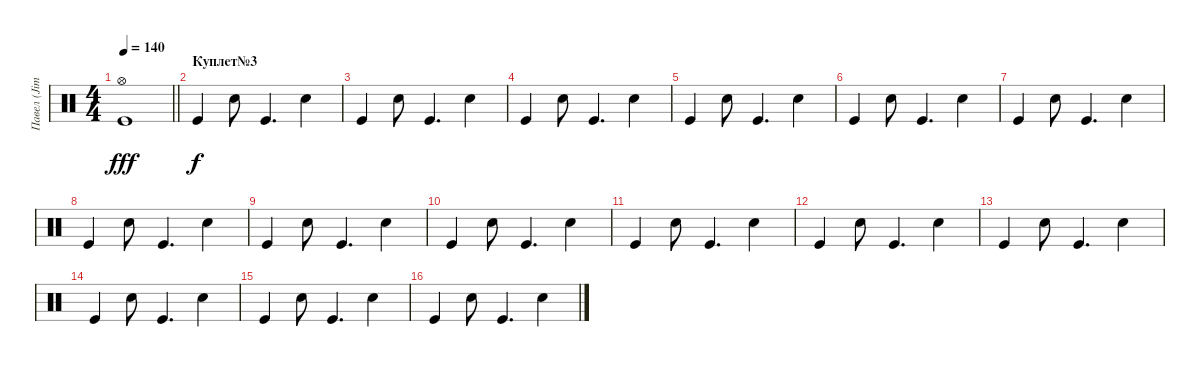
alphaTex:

\track ("Павел (Jimmy) Лохнин" "Павел (Jim") {instrument percussion}
\staff {score}
\articulation defaults
\ts (4 4)
\tempo 140
\clef neutral
\barLineRight lightlight
\ks c
("Kick (hit)" "Hi-Hat (open)").1{dy fff} |
\section ("" "Куплет№3")
"Kick (hit)".4{dy f} "Snare (hit) 2".8 "Kick (hit)".4{d} "Snare (hit) 2".4 |
"Kick (hit)".4 "Snare (hit) 2".8 "Kick (hit)".4{d} "Snare (hit) 2".4 |
"Kick (hit)".4 "Snare (hit) 2".8 "Kick (hit)".4{d} "Snare (hit) 2".4 |
"Kick (hit)".4 "Snare (hit) 2".8 "Kick (hit)".4{d} "Snare (hit) 2".4 |
"Kick (hit)".4 "Snare (hit) 2".8 "Kick (hit)".4{d} "Snare (hit) 2".4 |
"Kick (hit)".4 "Snare (hit) 2".8 "Kick (hit)".4{d} "Snare (hit) 2".4 |
"Kick (hit)".4 "Snare (hit) 2".8 "Kick (hit)".4{d} "Snare (hit) 2".4 |
"Kick (hit)".4 "Snare (hit) 2".8 "Kick (hit)".4{d} "Snare (hit) 2".4 |
"Kick (hit)".4 "Snare (hit) 2".8 "Kick (hit)".4{d} "Snare (hit) 2".4 |
"Kick (hit)".4 "Snare (hit) 2".8 "Kick (hit)".4{d} "Snare (hit) 2".4 |
"Kick (hit)".4 "Snare (hit) 2".8 "Kick (hit)".4{d} "Snare (hit) 2".4 |
"Kick (hit)".4 "Snare (hit) 2".8 "Kick (hit)".4{d} "Snare (hit) 2".4 |
"Kick (hit)".4 "Snare (hit) 2".8 "Kick (hit)".4{d} "Snare (hit) 2".4 |
"Kick (hit)".4 "Snare (hit) 2".8 "Kick (hit)".4{d} "Snare (hit) 2".4 |
"Kick (hit)".4 "Snare (hit) 2".8 "Kick (hit)".4{d} "Snare (hit) 2".4
